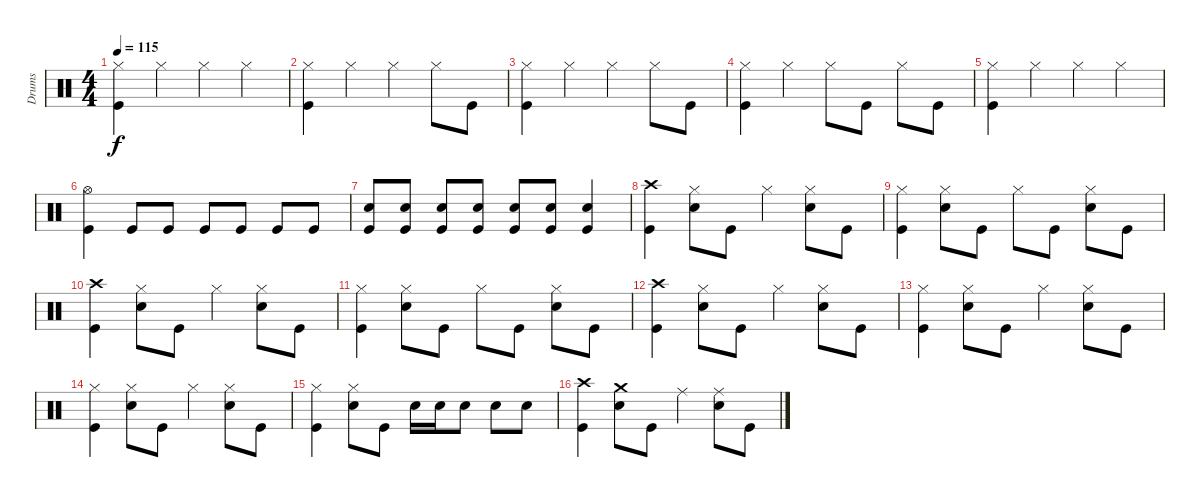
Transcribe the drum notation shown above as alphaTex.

\track ("Drums" "Drums") {instrument percussion}
\staff {score}
\articulation defaults
\ts (4 4)
\tempo 115
\clef neutral
\ks c
("Hi-Hat (closed)" "Kick (hit)").4{dy f} "Hi-Hat (closed)".4 "Hi-Hat (closed)".4 "Hi-Hat (closed)".4 |
("Hi-Hat (closed)" "Kick (hit)").4 "Hi-Hat (closed)".4 "Hi-Hat (closed)".4 "Hi-Hat (closed)".8 "Kick (hit)".8 |
("Hi-Hat (closed)" "Kick (hit)").4 "Hi-Hat (closed)".4 "Hi-Hat (closed)".4 "Hi-Hat (closed)".8 "Kick (hit)".8 |
("Hi-Hat (closed)" "Kick (hit)").4 "Hi-Hat (closed)".4 "Hi-Hat (closed)".8 "Kick (hit)".8 "Hi-Hat (closed)".8 "Kick (hit)".8 |
("Hi-Hat (closed)" "Kick (hit)").4 "Hi-Hat (closed)".4 "Hi-Hat (closed)".4 "Hi-Hat (closed)".4 |
("Kick (hit)" "Hi-Hat (open)").4 "Kick (hit)".8 "Kick (hit)".8 "Kick (hit)".8 "Kick (hit)".8 "Kick (hit)".8 "Kick (hit)".8 |
("Kick (hit)" "Snare (hit) 2").8 ("Kick (hit)" "Snare (hit) 2").8 ("Kick (hit)" "Snare (hit) 2").8 ("Kick (hit)" "Snare (hit) 2").8 ("Kick (hit)" "Snare (hit) 2").8 ("Kick (hit)" "Snare (hit) 2").8 ("Kick (hit)" "Snare (hit) 2").4 |
("Crash high (hit)" "Kick (hit)").4 ("Hi-Hat (closed)" "Snare (hit) 2").8 "Kick (hit)".8 "Hi-Hat (closed)".4 ("Hi-Hat (closed)" "Snare (hit) 2").8 "Kick (hit)".8 |
("Hi-Hat (closed)" "Kick (hit)").4 ("Hi-Hat (closed)" "Snare (hit) 2").8 "Kick (hit)".8 "Hi-Hat (closed)".8 "Kick (hit)".8 ("Hi-Hat (closed)" "Snare (hit) 2").8 "Kick (hit)".8 |
("Crash high (hit)" "Kick (hit)").4 ("Hi-Hat (closed)" "Snare (hit) 2").8 "Kick (hit)".8 "Hi-Hat (closed)".4 ("Hi-Hat (closed)" "Snare (hit) 2").8 "Kick (hit)".8 |
("Hi-Hat (closed)" "Kick (hit)").4 ("Hi-Hat (closed)" "Snare (hit) 2").8 "Kick (hit)".8 "Hi-Hat (closed)".8 "Kick (hit)".8 ("Hi-Hat (closed)" "Snare (hit) 2").8 "Kick (hit)".8 |
("Crash high (hit)" "Kick (hit)").4 ("Hi-Hat (closed)" "Snare (hit) 2").8 "Kick (hit)".8 "Hi-Hat (closed)".4 ("Hi-Hat (closed)" "Snare (hit) 2").8 "Kick (hit)".8 |
("Hi-Hat (closed)" "Kick (hit)").4 ("Hi-Hat (closed)" "Snare (hit) 2").8 "Kick (hit)".8 "Hi-Hat (closed)".4 ("Hi-Hat (closed)" "Snare (hit) 2").8 "Kick (hit)".8 |
("Hi-Hat (closed)" "Kick (hit)").4 ("Hi-Hat (closed)" "Snare (hit) 2").8 "Kick (hit)".8 "Hi-Hat (closed)".4 ("Hi-Hat (closed)" "Snare (hit) 2").8 "Kick (hit)".8 |
("Hi-Hat (closed)" "Kick (hit)").4 ("Hi-Hat (closed)" "Snare (hit) 2").8 "Kick (hit)".8 "Snare (hit) 2".16 "Snare (hit) 2".16 "Snare (hit) 2".8 "Snare (hit) 2".8 "Snare (hit) 2".8 |
("Crash high (hit)" "Kick (hit)").4 ("Crash medium (hit)" "Snare (hit) 2").8 "Kick (hit)".8 "Ride (middle)".4 ("Ride (middle)" "Snare (hit) 2").8 "Kick (hit)".8
